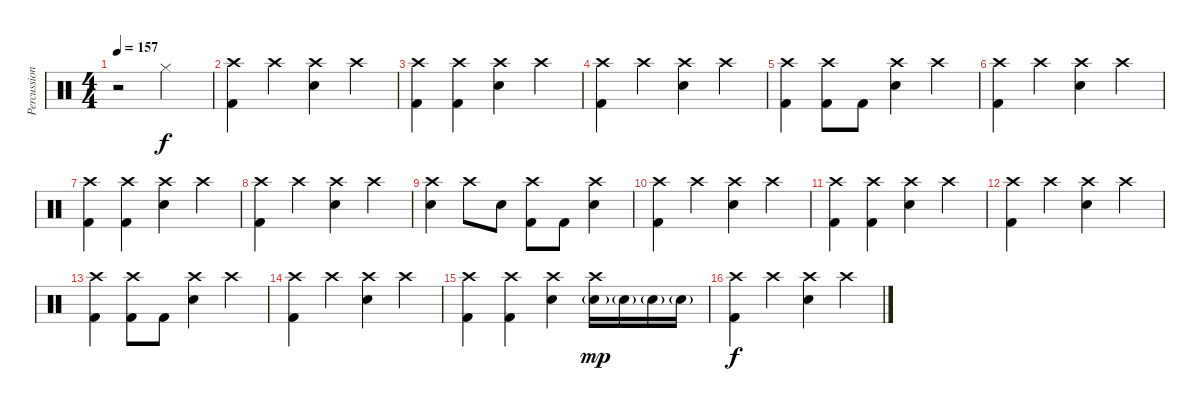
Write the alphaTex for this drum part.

\track ("Percussion" "Percussion") {instrument percussion}
\staff {score}
\articulation defaults
\ts (4 4)
\tempo 157
\clef neutral
\ks c
r.2{dy f} "Hi-Hat (closed)".2 |
("Crash high (hit)" "Kick (hit) 2").4 "Crash high (hit)".4 ("Crash high (hit)" "Snare (hit) 2").4 "Crash high (hit)".4 |
("Crash high (hit)" "Kick (hit) 2").4 ("Crash high (hit)" "Kick (hit) 2").4 ("Crash high (hit)" "Snare (hit) 2").4 "Crash high (hit)".4 |
("Crash high (hit)" "Kick (hit) 2").4 "Crash high (hit)".4 ("Crash high (hit)" "Snare (hit) 2").4 "Crash high (hit)".4 |
("Crash high (hit)" "Kick (hit) 2").4 ("Crash high (hit)" "Kick (hit) 2").8 "Kick (hit) 2".8 ("Crash high (hit)" "Snare (hit) 2").4 "Crash high (hit)".4 |
("Crash high (hit)" "Kick (hit) 2").4 "Crash high (hit)".4 ("Crash high (hit)" "Snare (hit) 2").4 "Crash high (hit)".4 |
("Crash high (hit)" "Kick (hit) 2").4 ("Crash high (hit)" "Kick (hit) 2").4 ("Crash high (hit)" "Snare (hit) 2").4 "Crash high (hit)".4 |
("Crash high (hit)" "Kick (hit) 2").4 "Crash high (hit)".4 ("Crash high (hit)" "Snare (hit) 2").4 "Crash high (hit)".4 |
("Crash high (hit)" "Snare (hit) 2").4 "Crash high (hit)".8 "Snare (hit) 2".8 ("Crash high (hit)" "Kick (hit) 2").8 "Kick (hit) 2".8 ("Crash high (hit)" "Snare (hit) 2").4 |
("Crash high (hit)" "Kick (hit) 2").4 "Crash high (hit)".4 ("Crash high (hit)" "Snare (hit) 2").4 "Crash high (hit)".4 |
("Crash high (hit)" "Kick (hit) 2").4 ("Crash high (hit)" "Kick (hit) 2").4 ("Crash high (hit)" "Snare (hit) 2").4 "Crash high (hit)".4 |
("Crash high (hit)" "Kick (hit) 2").4 "Crash high (hit)".4 ("Crash high (hit)" "Snare (hit) 2").4 "Crash high (hit)".4 |
("Crash high (hit)" "Kick (hit) 2").4 ("Crash high (hit)" "Kick (hit) 2").8 "Kick (hit) 2".8 ("Crash high (hit)" "Snare (hit) 2").4 "Crash high (hit)".4 |
("Crash high (hit)" "Kick (hit) 2").4 "Crash high (hit)".4 ("Crash high (hit)" "Snare (hit) 2").4 "Crash high (hit)".4 |
("Crash high (hit)" "Kick (hit) 2").4 ("Crash high (hit)" "Kick (hit) 2").4 ("Crash high (hit)" "Snare (hit) 2").4 ("Crash high (hit)" "Snare (hit) 2"{g}).16{dy mp} "Snare (hit) 2"{g}.16 "Snare (hit) 2"{g}.16 "Snare (hit) 2"{g}.16 |
("Crash high (hit)" "Kick (hit) 2").4{dy f} "Crash high (hit)".4 ("Crash high (hit)" "Snare (hit) 2").4 "Crash high (hit)".4
